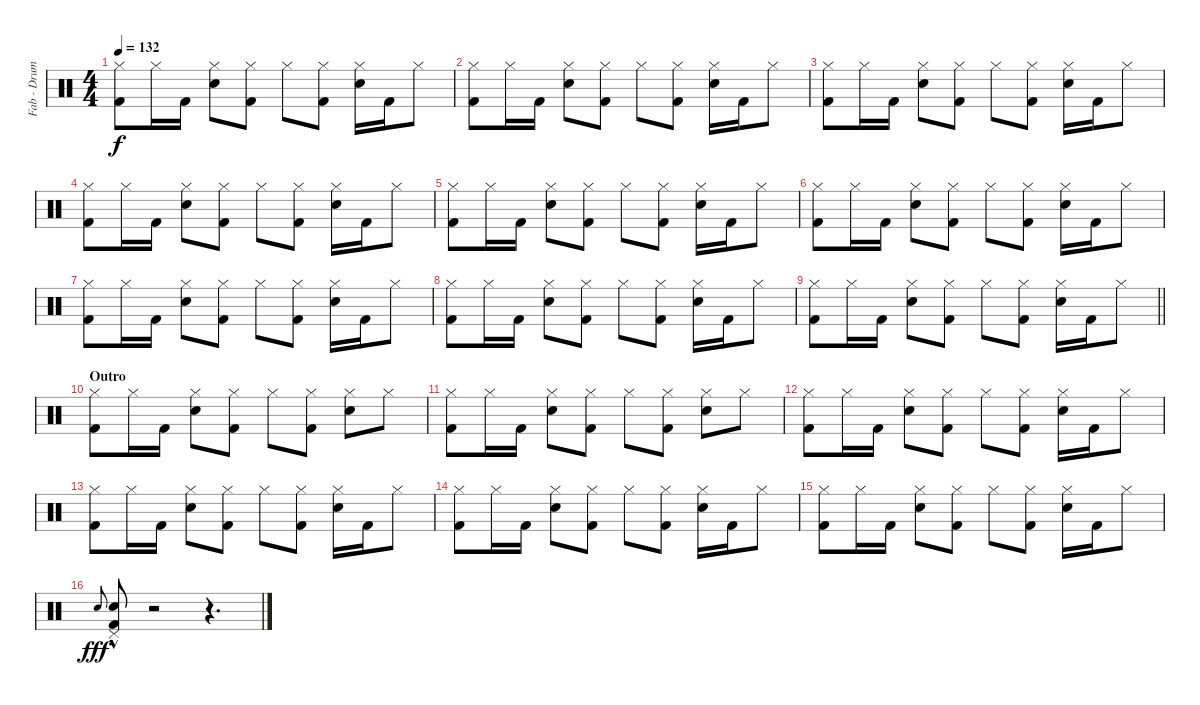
\track ("Fab - Drums MIDI" "Fab - Drum") {instrument percussion}
\staff {score}
\articulation defaults
\ts (4 4)
\tempo 132
\clef neutral
\ks c
("Hi-Hat (closed)" "Kick (hit) 2").8{dy f} "Hi-Hat (closed)".16 "Kick (hit) 2".16 ("Hi-Hat (closed)" "Snare (hit) 2").8 ("Hi-Hat (closed)" "Kick (hit) 2").8 "Hi-Hat (closed)".8 ("Hi-Hat (closed)" "Kick (hit) 2").8 ("Hi-Hat (closed)" "Snare (hit) 2").16 "Kick (hit) 2".16 "Hi-Hat (closed)".8 |
("Hi-Hat (closed)" "Kick (hit) 2").8 "Hi-Hat (closed)".16 "Kick (hit) 2".16 ("Hi-Hat (closed)" "Snare (hit) 2").8 ("Hi-Hat (closed)" "Kick (hit) 2").8 "Hi-Hat (closed)".8 ("Hi-Hat (closed)" "Kick (hit) 2").8 ("Hi-Hat (closed)" "Snare (hit) 2").16 "Kick (hit) 2".16 "Hi-Hat (closed)".8 |
("Hi-Hat (closed)" "Kick (hit) 2").8 "Hi-Hat (closed)".16 "Kick (hit) 2".16 ("Hi-Hat (closed)" "Snare (hit) 2").8 ("Hi-Hat (closed)" "Kick (hit) 2").8 "Hi-Hat (closed)".8 ("Hi-Hat (closed)" "Kick (hit) 2").8 ("Hi-Hat (closed)" "Snare (hit) 2").16 "Kick (hit) 2".16 "Hi-Hat (closed)".8 |
("Hi-Hat (closed)" "Kick (hit) 2").8 "Hi-Hat (closed)".16 "Kick (hit) 2".16 ("Hi-Hat (closed)" "Snare (hit) 2").8 ("Hi-Hat (closed)" "Kick (hit) 2").8 "Hi-Hat (closed)".8 ("Hi-Hat (closed)" "Kick (hit) 2").8 ("Hi-Hat (closed)" "Snare (hit) 2").16 "Kick (hit) 2".16 "Hi-Hat (closed)".8 |
("Hi-Hat (closed)" "Kick (hit) 2").8 "Hi-Hat (closed)".16 "Kick (hit) 2".16 ("Hi-Hat (closed)" "Snare (hit) 2").8 ("Hi-Hat (closed)" "Kick (hit) 2").8 "Hi-Hat (closed)".8 ("Hi-Hat (closed)" "Kick (hit) 2").8 ("Hi-Hat (closed)" "Snare (hit) 2").16 "Kick (hit) 2".16 "Hi-Hat (closed)".8 |
("Hi-Hat (closed)" "Kick (hit) 2").8 "Hi-Hat (closed)".16 "Kick (hit) 2".16 ("Hi-Hat (closed)" "Snare (hit) 2").8 ("Hi-Hat (closed)" "Kick (hit) 2").8 "Hi-Hat (closed)".8 ("Hi-Hat (closed)" "Kick (hit) 2").8 ("Hi-Hat (closed)" "Snare (hit) 2").16 "Kick (hit) 2".16 "Hi-Hat (closed)".8 |
("Hi-Hat (closed)" "Kick (hit) 2").8 "Hi-Hat (closed)".16 "Kick (hit) 2".16 ("Hi-Hat (closed)" "Snare (hit) 2").8 ("Hi-Hat (closed)" "Kick (hit) 2").8 "Hi-Hat (closed)".8 ("Hi-Hat (closed)" "Kick (hit) 2").8 ("Hi-Hat (closed)" "Snare (hit) 2").16 "Kick (hit) 2".16 "Hi-Hat (closed)".8 |
("Hi-Hat (closed)" "Kick (hit) 2").8 "Hi-Hat (closed)".16 "Kick (hit) 2".16 ("Hi-Hat (closed)" "Snare (hit) 2").8 ("Hi-Hat (closed)" "Kick (hit) 2").8 "Hi-Hat (closed)".8 ("Hi-Hat (closed)" "Kick (hit) 2").8 ("Hi-Hat (closed)" "Snare (hit) 2").16 "Kick (hit) 2".16 "Hi-Hat (closed)".8 |
\barLineRight lightlight
("Hi-Hat (closed)" "Kick (hit) 2").8 "Hi-Hat (closed)".16 "Kick (hit) 2".16 ("Hi-Hat (closed)" "Snare (hit) 2").8 ("Hi-Hat (closed)" "Kick (hit) 2").8 "Hi-Hat (closed)".8 ("Hi-Hat (closed)" "Kick (hit) 2").8 ("Hi-Hat (closed)" "Snare (hit) 2").16 "Kick (hit) 2".16 "Hi-Hat (closed)".8 |
\section ("" "Outro")
("Hi-Hat (closed)" "Kick (hit) 2").8 "Hi-Hat (closed)".16 "Kick (hit) 2".16 ("Hi-Hat (closed)" "Snare (hit) 2").8 ("Hi-Hat (closed)" "Kick (hit) 2").8 "Hi-Hat (closed)".8 ("Hi-Hat (closed)" "Kick (hit) 2").8 ("Hi-Hat (closed)" "Snare (hit) 2").8 "Hi-Hat (closed)".8 |
("Hi-Hat (closed)" "Kick (hit) 2").8 "Hi-Hat (closed)".16 "Kick (hit) 2".16 ("Hi-Hat (closed)" "Snare (hit) 2").8 ("Hi-Hat (closed)" "Kick (hit) 2").8 "Hi-Hat (closed)".8 ("Hi-Hat (closed)" "Kick (hit) 2").8 ("Hi-Hat (closed)" "Snare (hit) 2").8 "Hi-Hat (closed)".8 |
("Hi-Hat (closed)" "Kick (hit) 2").8 "Hi-Hat (closed)".16 "Kick (hit) 2".16 ("Hi-Hat (closed)" "Snare (hit) 2").8 ("Hi-Hat (closed)" "Kick (hit) 2").8 "Hi-Hat (closed)".8 ("Hi-Hat (closed)" "Kick (hit) 2").8 ("Hi-Hat (closed)" "Snare (hit) 2").16 "Kick (hit) 2".16 "Hi-Hat (closed)".8 |
("Hi-Hat (closed)" "Kick (hit) 2").8 "Hi-Hat (closed)".16 "Kick (hit) 2".16 ("Hi-Hat (closed)" "Snare (hit) 2").8 ("Hi-Hat (closed)" "Kick (hit) 2").8 "Hi-Hat (closed)".8 ("Hi-Hat (closed)" "Kick (hit) 2").8 ("Hi-Hat (closed)" "Snare (hit) 2").16 "Kick (hit) 2".16 "Hi-Hat (closed)".8 |
("Hi-Hat (closed)" "Kick (hit) 2").8 "Hi-Hat (closed)".16 "Kick (hit) 2".16 ("Hi-Hat (closed)" "Snare (hit) 2").8 ("Hi-Hat (closed)" "Kick (hit) 2").8 "Hi-Hat (closed)".8 ("Hi-Hat (closed)" "Kick (hit) 2").8 ("Hi-Hat (closed)" "Snare (hit) 2").16 "Kick (hit) 2".16 "Hi-Hat (closed)".8 |
("Hi-Hat (closed)" "Kick (hit) 2").8 "Hi-Hat (closed)".16 "Kick (hit) 2".16 ("Hi-Hat (closed)" "Snare (hit) 2").8 ("Hi-Hat (closed)" "Kick (hit) 2").8 "Hi-Hat (closed)".8 ("Hi-Hat (closed)" "Kick (hit) 2").8 ("Hi-Hat (closed)" "Snare (hit) 2").16 "Kick (hit) 2".16 "Hi-Hat (closed)".8 |
"Snare (hit) 2".8{gr onbeat dy fff} ("Pedal Hi-Hat (hit)"{hac} "Snare (hit) 2"{hac} "Kick (hit) 2"{hac}).8 r.2 r.4{d}
